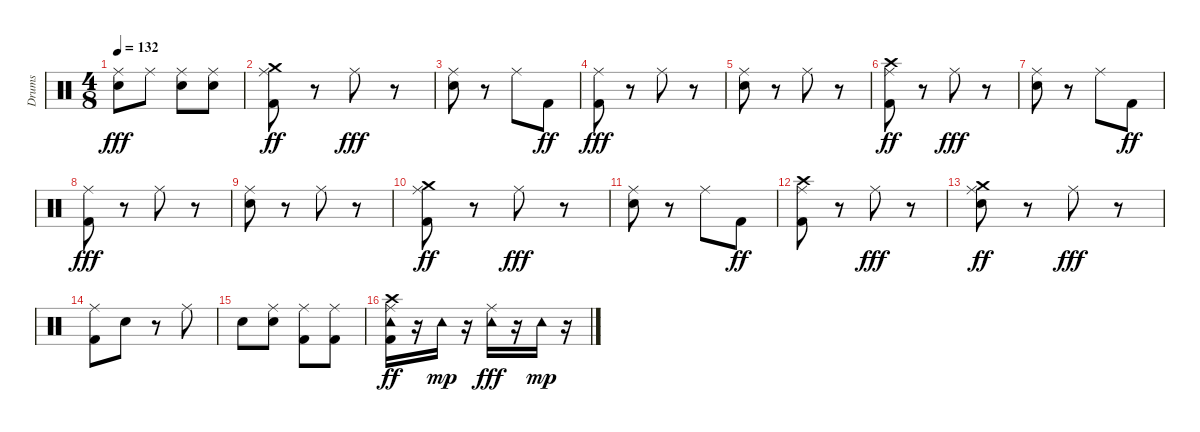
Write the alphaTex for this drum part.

\track ("Drums" "Drums") {instrument percussion}
\staff {score}
\articulation defaults
\ts (4 8)
\tempo 132
\clef neutral
\ks c
("Snare (hit) 2" "Ride (middle)").8{dy fff} "Ride (middle)".8 ("Snare (hit) 2" "Ride (middle)").8 ("Snare (hit) 2" "Ride (middle)").8 |
("Kick (hit) 2" "Ride (middle)" "Crash medium (hit)").8{dy ff} r.8 "Ride (middle)".8{dy fff} r.8 |
("Snare (hit) 2" "Ride (middle)").8 r.8 "Ride (middle)".8 "Kick (hit) 2".8{dy ff} |
("Kick (hit) 2" "Ride (middle)").8{dy fff} r.8 "Ride (middle)".8 r.8 |
("Snare (hit) 2" "Ride (middle)").8 r.8 "Ride (middle)".8 r.8 |
("Kick (hit) 2" "Ride (middle)" "Crash high (hit)").8{dy ff} r.8 "Ride (middle)".8{dy fff} r.8 |
("Snare (hit) 2" "Ride (middle)").8 r.8 "Ride (middle)".8 "Kick (hit) 2".8{dy ff} |
("Kick (hit) 2" "Ride (middle)").8{dy fff} r.8 "Ride (middle)".8 r.8 |
("Snare (hit) 2" "Ride (middle)").8 r.8 "Ride (middle)".8 r.8 |
("Kick (hit) 2" "Ride (middle)" "Crash medium (hit)").8{dy ff} r.8 "Ride (middle)".8{dy fff} r.8 |
("Snare (hit) 2" "Ride (middle)").8 r.8 "Ride (middle)".8 "Kick (hit) 2".8{dy ff} |
("Kick (hit) 2" "Ride (middle)" "Crash high (hit)").8 r.8 "Ride (middle)".8{dy fff} r.8 |
("Snare (hit) 2" "Ride (middle)" "Crash medium (hit)").8{dy ff} r.8 "Ride (middle)".8{dy fff} r.8 |
("Kick (hit) 2" "Ride (middle)").8 "Snare (hit) 2".8 r.8 "Ride (middle)".8 |
"Snare (hit) 2".8 ("Snare (hit) 2" "Ride (middle)").8 ("Kick (hit) 2" "Ride (middle)").8 ("Kick (hit) 2" "Ride (middle)").8 |
("Kick (hit) 2" "Ride (middle)" "Tambourine (hit)" "Crash high (hit)").16{dy ff} r.16 "Tambourine (hit)".16{dy mp} r.16 ("Ride (middle)" "Tambourine (hit)").16{dy fff} r.16 "Tambourine (hit)".16{dy mp} r.16
